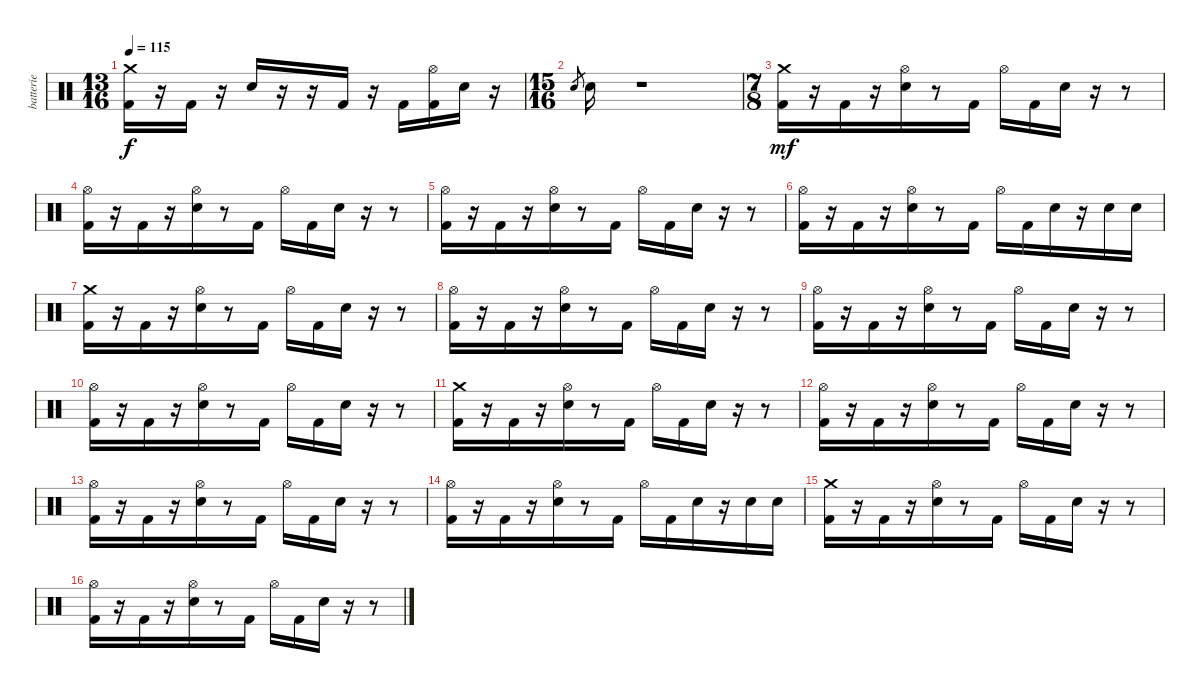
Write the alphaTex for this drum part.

\track ("batterie" "batterie") {instrument percussion}
\staff {score}
\articulation defaults
\ts (13 16)
\tempo 115
\clef neutral
\ks c
("Crash medium (hit)" "Kick (hit) 2").16{dy f} r.16 "Kick (hit) 2".16 r.16 "Electric Snare (hit)".16 r.16 r.16 "Kick (hit) 2".16 r.16 "Kick (hit) 2".16 ("Hi-Hat (open)" "Kick (hit) 2").16 "Electric Snare (hit)".16 r.16 |
\ts (15 16)
"Electric Snare (hit)".8{gr} "Electric Snare (hit)".16 r.1 |
\ts (7 8)
("Crash medium (hit)" "Kick (hit) 2").16{dy mf} r.16 "Kick (hit) 2".16 r.16 ("Hi-Hat (open)" "Electric Snare (hit)").16 r.8 "Kick (hit) 2".16 "Hi-Hat (open)".16 "Kick (hit) 2".16 "Electric Snare (hit)".16 r.16 r.8 |
("Hi-Hat (open)" "Kick (hit) 2").16 r.16 "Kick (hit) 2".16 r.16 ("Hi-Hat (open)" "Electric Snare (hit)").16 r.8 "Kick (hit) 2".16 "Hi-Hat (open)".16 "Kick (hit) 2".16 "Electric Snare (hit)".16 r.16 r.8 |
("Hi-Hat (open)" "Kick (hit) 2").16 r.16 "Kick (hit) 2".16 r.16 ("Hi-Hat (open)" "Electric Snare (hit)").16 r.8 "Kick (hit) 2".16 "Hi-Hat (open)".16 "Kick (hit) 2".16 "Electric Snare (hit)".16 r.16 r.8 |
("Hi-Hat (open)" "Kick (hit) 2").16 r.16 "Kick (hit) 2".16 r.16 ("Hi-Hat (open)" "Electric Snare (hit)").16 r.8 "Kick (hit) 2".16 "Hi-Hat (open)".16 "Kick (hit) 2".16 "Electric Snare (hit)".16 r.16 "Electric Snare (hit)".16 "Electric Snare (hit)".16 |
("Crash medium (hit)" "Kick (hit) 2").16 r.16 "Kick (hit) 2".16 r.16 ("Hi-Hat (open)" "Electric Snare (hit)").16 r.8 "Kick (hit) 2".16 "Hi-Hat (open)".16 "Kick (hit) 2".16 "Electric Snare (hit)".16 r.16 r.8 |
("Hi-Hat (open)" "Kick (hit) 2").16 r.16 "Kick (hit) 2".16 r.16 ("Hi-Hat (open)" "Electric Snare (hit)").16 r.8 "Kick (hit) 2".16 "Hi-Hat (open)".16 "Kick (hit) 2".16 "Electric Snare (hit)".16 r.16 r.8 |
("Hi-Hat (open)" "Kick (hit) 2").16 r.16 "Kick (hit) 2".16 r.16 ("Hi-Hat (open)" "Electric Snare (hit)").16 r.8 "Kick (hit) 2".16 "Hi-Hat (open)".16 "Kick (hit) 2".16 "Electric Snare (hit)".16 r.16 r.8 |
("Hi-Hat (open)" "Kick (hit) 2").16 r.16 "Kick (hit) 2".16 r.16 ("Hi-Hat (open)" "Electric Snare (hit)").16 r.8 "Kick (hit) 2".16 "Hi-Hat (open)".16 "Kick (hit) 2".16 "Electric Snare (hit)".16 r.16 r.8 |
("Crash medium (hit)" "Kick (hit) 2").16 r.16 "Kick (hit) 2".16 r.16 ("Hi-Hat (open)" "Electric Snare (hit)").16 r.8 "Kick (hit) 2".16 "Hi-Hat (open)".16 "Kick (hit) 2".16 "Electric Snare (hit)".16 r.16 r.8 |
("Hi-Hat (open)" "Kick (hit) 2").16 r.16 "Kick (hit) 2".16 r.16 ("Hi-Hat (open)" "Electric Snare (hit)").16 r.8 "Kick (hit) 2".16 "Hi-Hat (open)".16 "Kick (hit) 2".16 "Electric Snare (hit)".16 r.16 r.8 |
("Hi-Hat (open)" "Kick (hit) 2").16 r.16 "Kick (hit) 2".16 r.16 ("Hi-Hat (open)" "Electric Snare (hit)").16 r.8 "Kick (hit) 2".16 "Hi-Hat (open)".16 "Kick (hit) 2".16 "Electric Snare (hit)".16 r.16 r.8 |
("Hi-Hat (open)" "Kick (hit) 2").16 r.16 "Kick (hit) 2".16 r.16 ("Hi-Hat (open)" "Electric Snare (hit)").16 r.8 "Kick (hit) 2".16 "Hi-Hat (open)".16 "Kick (hit) 2".16 "Electric Snare (hit)".16 r.16 "Electric Snare (hit)".16 "Electric Snare (hit)".16 |
("Crash medium (hit)" "Kick (hit) 2").16 r.16 "Kick (hit) 2".16 r.16 ("Hi-Hat (open)" "Electric Snare (hit)").16 r.8 "Kick (hit) 2".16 "Hi-Hat (open)".16 "Kick (hit) 2".16 "Electric Snare (hit)".16 r.16 r.8 |
("Hi-Hat (open)" "Kick (hit) 2").16 r.16 "Kick (hit) 2".16 r.16 ("Hi-Hat (open)" "Electric Snare (hit)").16 r.8 "Kick (hit) 2".16 "Hi-Hat (open)".16 "Kick (hit) 2".16 "Electric Snare (hit)".16 r.16 r.8
